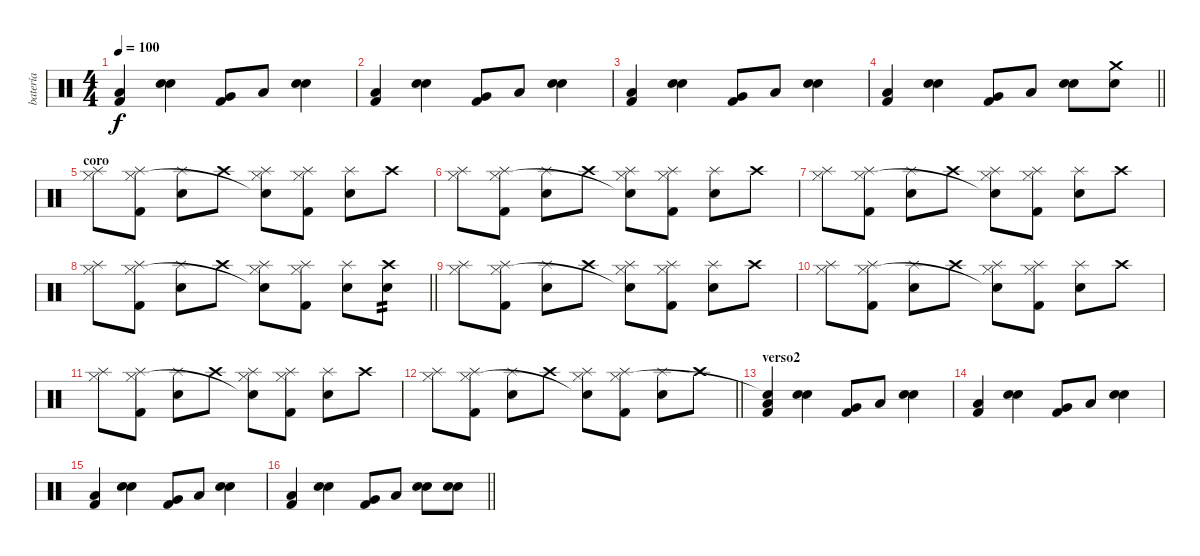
\track ("batería" "batería") {instrument percussion}
\staff {score}
\articulation defaults
\ts (4 4)
\tempo 100
\clef neutral
\ks c
("Kick (hit) 2" "Low Floor Tom (hit)").4{dy f} ("Snare (hit) 2" "Snare (hit) 2").4 ("Kick (hit) 2" "Very Low Tom (hit)").8 "Low Floor Tom (hit)".8 ("Snare (hit) 2" "Snare (hit) 2").4 |
("Kick (hit) 2" "Low Floor Tom (hit)").4 ("Snare (hit) 2" "Snare (hit) 2").4 ("Kick (hit) 2" "Very Low Tom (hit)").8 "Low Floor Tom (hit)".8 ("Snare (hit) 2" "Snare (hit) 2").4 |
("Kick (hit) 2" "Low Floor Tom (hit)").4 ("Snare (hit) 2" "Snare (hit) 2").4 ("Kick (hit) 2" "Very Low Tom (hit)").8 "Low Floor Tom (hit)".8 ("Snare (hit) 2" "Snare (hit) 2").4 |
\barLineRight lightlight
("Kick (hit) 2" "Low Floor Tom (hit)").4 ("Snare (hit) 2" "Snare (hit) 2").4 ("Kick (hit) 2" "Very Low Tom (hit)").8 "Low Floor Tom (hit)".8 ("Snare (hit) 2" "Snare (hit) 2").8 ("Snare (hit) 2" "Crash medium (hit)").8 |
\section ("" "coro")
("Splash (hit)" "Hi-Hat (closed)").8 ("Kick (hit) 2" "Splash (hit)" "Hi-Hat (closed)").8 ("Splash (hit)" "Snare (hit) 2").8 "Crash high (hit)".8 ("Splash (hit)" "Hi-Hat (closed)" "Snare (hit)"{t}).8 ("Kick (hit) 2" "Splash (hit)" "Hi-Hat (closed)").8 ("Splash (hit)" "Snare (hit) 2").8 "Crash high (hit)".8 |
("Splash (hit)" "Hi-Hat (closed)").8 ("Kick (hit) 2" "Splash (hit)" "Hi-Hat (closed)").8 ("Splash (hit)" "Snare (hit) 2").8 "Crash high (hit)".8 ("Splash (hit)" "Hi-Hat (closed)" "Snare (hit)"{t}).8 ("Kick (hit) 2" "Splash (hit)" "Hi-Hat (closed)").8 ("Splash (hit)" "Snare (hit) 2").8 "Crash high (hit)".8 |
("Splash (hit)" "Hi-Hat (closed)").8 ("Kick (hit) 2" "Splash (hit)" "Hi-Hat (closed)").8 ("Splash (hit)" "Snare (hit) 2").8 "Crash high (hit)".8 ("Splash (hit)" "Hi-Hat (closed)" "Snare (hit)"{t}).8 ("Kick (hit) 2" "Splash (hit)" "Hi-Hat (closed)").8 ("Splash (hit)" "Snare (hit) 2").8 "Crash high (hit)".8 |
\barLineRight lightlight
("Splash (hit)" "Hi-Hat (closed)").8 ("Kick (hit) 2" "Splash (hit)" "Hi-Hat (closed)").8 ("Splash (hit)" "Snare (hit) 2").8 "Crash high (hit)".8 ("Splash (hit)" "Hi-Hat (closed)" "Snare (hit)"{t}).8 ("Kick (hit) 2" "Splash (hit)" "Hi-Hat (closed)").8 ("Splash (hit)" "Snare (hit) 2").8 ("Snare (hit) 2" "Crash high (hit)").8{tp 2} |
("Splash (hit)" "Hi-Hat (closed)").8 ("Kick (hit) 2" "Splash (hit)" "Hi-Hat (closed)").8 ("Splash (hit)" "Snare (hit) 2").8 "Crash high (hit)".8 ("Splash (hit)" "Hi-Hat (closed)" "Snare (hit)"{t}).8 ("Kick (hit) 2" "Splash (hit)" "Hi-Hat (closed)").8 ("Splash (hit)" "Snare (hit) 2").8 "Crash high (hit)".8 |
("Splash (hit)" "Hi-Hat (closed)").8 ("Kick (hit) 2" "Splash (hit)" "Hi-Hat (closed)").8 ("Splash (hit)" "Snare (hit) 2").8 "Crash high (hit)".8 ("Splash (hit)" "Hi-Hat (closed)" "Snare (hit)"{t}).8 ("Kick (hit) 2" "Splash (hit)" "Hi-Hat (closed)").8 ("Splash (hit)" "Snare (hit) 2").8 "Crash high (hit)".8 |
("Splash (hit)" "Hi-Hat (closed)").8 ("Kick (hit) 2" "Splash (hit)" "Hi-Hat (closed)").8 ("Splash (hit)" "Snare (hit) 2").8 "Crash high (hit)".8 ("Splash (hit)" "Hi-Hat (closed)" "Snare (hit)"{t}).8 ("Kick (hit) 2" "Splash (hit)" "Hi-Hat (closed)").8 ("Splash (hit)" "Snare (hit) 2").8 "Crash high (hit)".8 |
\barLineRight lightlight
("Splash (hit)" "Hi-Hat (closed)").8 ("Kick (hit) 2" "Splash (hit)" "Hi-Hat (closed)").8 ("Splash (hit)" "Snare (hit) 2").8 "Crash high (hit)".8 ("Splash (hit)" "Hi-Hat (closed)" "Snare (hit)"{t}).8 ("Kick (hit) 2" "Splash (hit)" "Hi-Hat (closed)").8 ("Splash (hit)" "Snare (hit) 2").8 "Crash high (hit)".8 |
\section ("" "verso2")
("Kick (hit) 2" "Low Floor Tom (hit)" "Snare (hit)"{t}).4 ("Snare (hit) 2" "Snare (hit) 2").4 ("Kick (hit) 2" "Very Low Tom (hit)").8 "Low Floor Tom (hit)".8 ("Snare (hit) 2" "Snare (hit) 2").4 |
("Kick (hit) 2" "Low Floor Tom (hit)").4 ("Snare (hit) 2" "Snare (hit) 2").4 ("Kick (hit) 2" "Very Low Tom (hit)").8 "Low Floor Tom (hit)".8 ("Snare (hit) 2" "Snare (hit) 2").4 |
("Kick (hit) 2" "Low Floor Tom (hit)").4 ("Snare (hit) 2" "Snare (hit) 2").4 ("Kick (hit) 2" "Very Low Tom (hit)").8 "Low Floor Tom (hit)".8 ("Snare (hit) 2" "Snare (hit) 2").4 |
\barLineRight lightlight
("Kick (hit) 2" "Low Floor Tom (hit)").4 ("Snare (hit) 2" "Snare (hit) 2").4 ("Kick (hit) 2" "Very Low Tom (hit)").8 "Low Floor Tom (hit)".8 ("Snare (hit) 2" "Snare (hit) 2").8 ("Snare (hit) 2" "Electric Snare (hit)").8
